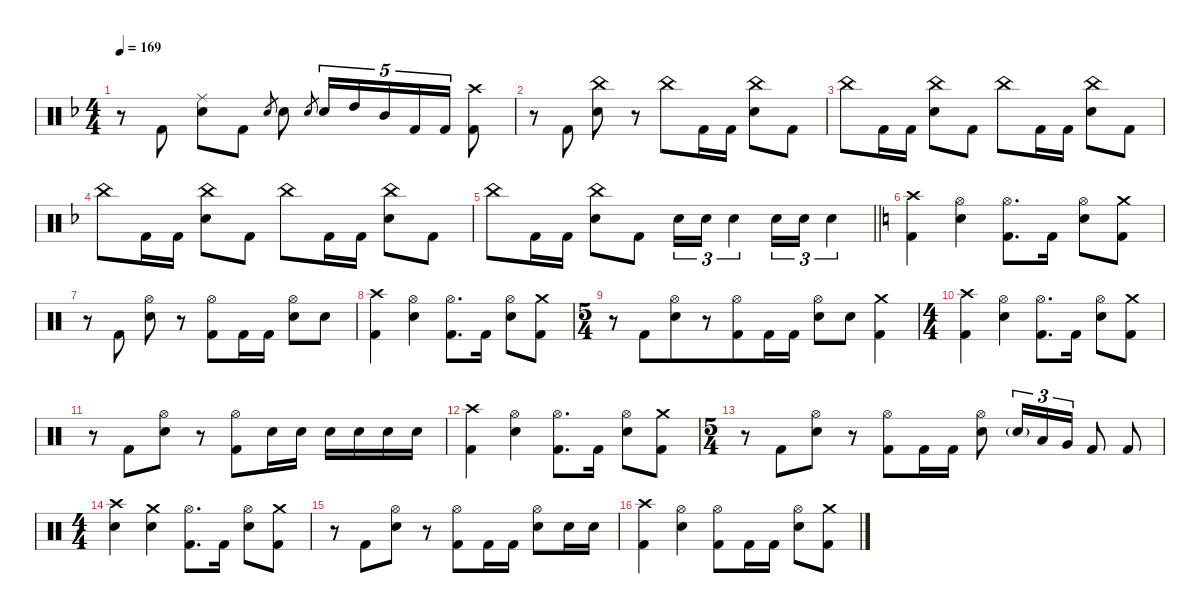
\defaultSystemsLayout 4
\hideDynamics
\bracketExtendMode nobrackets
\singleTrackTrackNamePolicy hidden
\multiTrackTrackNamePolicy hidden
\otherSystemsTrackNameOrientation horizontal
\track ("Drums" "drm.") {defaultSystemsLayout 4 instrument percussion}
\staff {score}
\articulation defaults
\ts (4 4)
\tempo 169
\clef neutral
\ks f
r.8{dy fff beam Down} "Kick (hit) 2"{acc forcenatural}.8{beam Up} ("Snare (hit) 2"{acc forcenatural} "Ride (middle)"{acc forcenatural}).8{beam Down} "Kick (hit) 2"{acc forcenatural}.8{dy f beam Down} "Electric Snare (hit)"{acc forcenatural}.8{gr dy mf beam Up} "Snare (hit) 2"{acc forcenatural}.8{dy fff beam Down} "Electric Snare (hit)"{acc forcenatural}.8{gr dy mf beam Up} "Snare (hit) 2"{acc forcenatural}.16{tu (5 4) dy fff beam Up} "High Tom (hit)"{acc forcenatural}.16{tu (5 4) beam Up} "Mid Tom (hit)"{acc forcenatural}.16{tu (5 4) beam Up} "Kick (hit) 2"{acc forcenatural}.16{tu (5 4) dy f beam Up} "Kick (hit) 2"{acc forcenatural}.16{tu (5 4) beam Up} ("Kick (hit) 2"{acc forcenatural} "Crash high (hit)"{acc forcenatural}).8{dy fff beam Down} |
r.8{beam Down} "Kick (hit) 2"{acc forcenatural}.8{beam Up} ("Snare (hit) 2"{acc forcenatural} "China (hit)"{acc forcenatural}).8{beam Down} r.8{beam Down} "China (hit)"{acc forcenatural}.8{dy f beam Down} "Kick (hit) 2"{acc forcenatural}.16{dy fff beam Down} "Kick (hit) 2"{acc forcenatural}.16{beam Down} ("Snare (hit) 2"{acc forcenatural} "China (hit)"{acc forcenatural}).8{beam Down} "Kick (hit) 2"{acc forcenatural}.8{beam Down} |
"China (hit)"{acc forcenatural}.8{dy f beam Down} "Kick (hit) 2"{acc forcenatural}.16{dy fff beam Down} "Kick (hit) 2"{acc forcenatural}.16{beam Down} ("Snare (hit) 2"{acc forcenatural} "China (hit)"{acc forcenatural}).8{beam Down} "Kick (hit) 2"{acc forcenatural}.8{beam Down} "China (hit)"{acc forcenatural}.8{dy f beam Down} "Kick (hit) 2"{acc forcenatural}.16{dy fff beam Down} "Kick (hit) 2"{acc forcenatural}.16{beam Down} ("Snare (hit) 2"{acc forcenatural} "China (hit)"{acc forcenatural}).8{beam Down} "Kick (hit) 2"{acc forcenatural}.8{beam Down} |
"China (hit)"{acc forcenatural}.8{dy f beam Down} "Kick (hit) 2"{acc forcenatural}.16{dy fff beam Down} "Kick (hit) 2"{acc forcenatural}.16{beam Down} ("Snare (hit) 2"{acc forcenatural} "China (hit)"{acc forcenatural}).8{beam Down} "Kick (hit) 2"{acc forcenatural}.8{beam Down} "China (hit)"{acc forcenatural}.8{dy f beam Down} "Kick (hit) 2"{acc forcenatural}.16{dy fff beam Down} "Kick (hit) 2"{acc forcenatural}.16{beam Down} ("Snare (hit) 2"{acc forcenatural} "China (hit)"{acc forcenatural}).8{beam Down} "Kick (hit) 2"{acc forcenatural}.8{beam Down} |
\barLineRight lightlight "China (hit)"{acc forcenatural}.8{dy f beam Down} "Kick (hit) 2"{acc forcenatural}.16{dy fff beam Down} "Kick (hit) 2"{acc forcenatural}.16{beam Down}
("Snare (hit) 2"{acc forcenatural} "China (hit)"{acc forcenatural}).8{beam Down} "Kick (hit) 2"{acc forcenatural}.8{beam Down} "Snare (hit) 2"{acc forcenatural}.16{tu (3 2) beam Down} "Snare (hit) 2"{acc forcenatural}.16{tu (3 2) beam Down} "Snare (hit) 2"{acc forcenatural}.4{tu (3 2) beam Down} "Snare (hit) 2"{acc forcenatural}.16{tu (3 2) beam Down} "Snare (hit) 2"{acc forcenatural}.16{tu (3 2) beam Down} "Snare (hit) 2"{acc forcenatural}.4{tu (3 2) beam Down} |
\ks c
("Kick (hit) 2" "Crash high (hit)").4{beam Down} ("Snare (hit) 2" "Hi-Hat (open)").4{beam Down} ("Kick (hit) 2" "Hi-Hat (open)").8{d beam Down} "Kick (hit) 2".16{beam Down} ("Snare (hit) 2" "Hi-Hat (open)").8{beam Down} ("Kick (hit) 2" "Crash medium (hit)").8{beam Down} |
r.8{beam Down} "Kick (hit) 2".8{beam Up} ("Snare (hit) 2" "Hi-Hat (open)").8{beam Down} r.8{beam Down} ("Kick (hit) 2" "Hi-Hat (open)").8{beam Down} "Kick (hit) 2".16{beam Down} "Kick (hit) 2".16{beam Down} ("Snare (hit) 2" "Hi-Hat (open)").8{beam Down} "Snare (hit) 2".8{beam Down} |
("Kick (hit) 2" "Crash high (hit)").4{beam Down} ("Snare (hit) 2" "Hi-Hat (open)").4{beam Down} ("Kick (hit) 2" "Hi-Hat (open)").8{d beam Down} "Kick (hit) 2".16{beam Down} ("Snare (hit) 2" "Hi-Hat (open)").8{beam Down} ("Kick (hit) 2" "Crash medium (hit)").8{beam Down} |
\ts (5 4)
\beaming (8 6 4)
r.8{beam Down} "Kick (hit) 2".8{beam Up} ("Snare (hit) 2" "Hi-Hat (open)").8{beam Up} r.8{beam Up} ("Kick (hit) 2" "Hi-Hat (open)").8{beam Up} "Kick (hit) 2".16{beam Up} "Kick (hit) 2".16{beam Up} ("Snare (hit) 2" "Hi-Hat (open)").8{beam Down} "Snare (hit) 2".8{beam Down} ("Kick (hit) 2" "Crash medium (hit)").4{beam Down} |
\ts (4 4)
\beaming (8 3 3 3 2)
("Kick (hit) 2" "Crash high (hit)").4{beam Down} ("Snare (hit) 2" "Hi-Hat (open)").4{beam Down} ("Kick (hit) 2" "Hi-Hat (open)").8{d beam Down} "Kick (hit) 2".16{beam Down} ("Snare (hit) 2" "Hi-Hat (open)").8{beam Down} ("Kick (hit) 2" "Crash medium (hit)").8{beam Down} |
r.8{beam Down} "Kick (hit) 2".8{beam Down} ("Snare (hit) 2" "Hi-Hat (open)").8{beam Down} r.8{beam Down} ("Kick (hit) 2" "Hi-Hat (open)").8{beam Down} "Snare (hit) 2".16{beam Down} "Snare (hit) 2".16{beam Down} "Snare (hit) 2".16{beam Down} "Snare (hit) 2".16{beam Down} "Snare (hit) 2".16{beam Down} "Snare (hit) 2".16{beam Down} |
("Kick (hit) 2" "Crash high (hit)").4{beam Down} ("Snare (hit) 2" "Hi-Hat (open)").4{beam Down} ("Kick (hit) 2" "Hi-Hat (open)").8{d beam Down} "Kick (hit) 2".16{beam Down} ("Snare (hit) 2" "Hi-Hat (open)").8{beam Down} ("Kick (hit) 2" "Crash medium (hit)").8{beam Down} |
\ts (5 4)
\beaming (8 3 3 3 2)
r.8{beam Down} "Kick (hit) 2".8{beam Down} ("Snare (hit) 2" "Hi-Hat (open)").8{beam Down} r.8{beam Down} ("Kick (hit) 2" "Hi-Hat (open)").8{beam Down} "Kick (hit) 2".16{beam Down} "Kick (hit) 2".16{beam Down} ("Snare (hit) 2" "Hi-Hat (open)").8{beam Down} "Snare (hit) 2"{g}.16{tu (3 2) dy ff beam Up} "Low Tom (hit)".16{tu (3 2) dy fff beam Up} "Very Low Tom (hit)".16{tu (3 2) beam Up} "Kick (hit) 2".8{beam Up} "Kick (hit) 2".8{beam Up} |
\ts (4 4)
\beaming (8 3 3 3 2)
("Snare (hit) 2" "Crash high (hit)").4{beam Down} ("Snare (hit) 2" "Crash medium (hit)").4{beam Down} ("Kick (hit) 2" "Hi-Hat (open)").8{d beam Down} "Kick (hit) 2".16{beam Down} ("Snare (hit) 2" "Hi-Hat (open)").8{beam Down} ("Kick (hit) 2" "Crash medium (hit)").8{beam Down} |
r.8{beam Down} "Kick (hit) 2".8{beam Down} ("Snare (hit) 2" "Hi-Hat (open)").8{beam Down} r.8{beam Down} ("Kick (hit) 2" "Hi-Hat (open)").8{beam Down} "Kick (hit) 2".16{beam Down} "Kick (hit) 2".16{beam Down} ("Snare (hit) 2" "Hi-Hat (open)").8{beam Down} "Snare (hit) 2".16{beam Down} "Snare (hit) 2".16{beam Down} |
("Kick (hit) 2" "Crash high (hit)").4{beam Down} ("Snare (hit) 2" "Hi-Hat (open)").4{beam Down} ("Kick (hit) 2" "Hi-Hat (open)").8{beam Down} "Kick (hit) 2".16{beam Down} "Kick (hit) 2".16{beam Down} ("Snare (hit) 2" "Hi-Hat (open)").8{beam Down} ("Kick (hit) 2" "Crash medium (hit)").8{beam Down}
